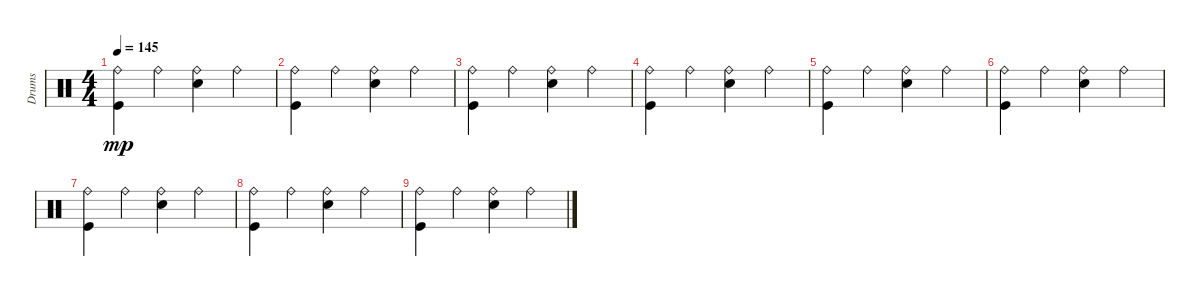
\track ("Drums" "Drums") {instrument percussion}
\staff {score}
\articulation defaults
\ts (4 4)
\tempo 145
\clef neutral
\ks c
("Kick (hit)" "Ride (bell)").4{dy mp} "Ride (bell)".4 ("Snare (hit) 2" "Ride (bell)").4 "Ride (bell)".4 |
("Kick (hit)" "Ride (bell)").4 "Ride (bell)".4 ("Snare (hit) 2" "Ride (bell)").4 "Ride (bell)".4 |
("Kick (hit)" "Ride (bell)").4 "Ride (bell)".4 ("Snare (hit) 2" "Ride (bell)").4 "Ride (bell)".4 |
("Kick (hit)" "Ride (bell)").4 "Ride (bell)".4 ("Snare (hit) 2" "Ride (bell)").4 "Ride (bell)".4 |
("Kick (hit)" "Ride (bell)").4 "Ride (bell)".4 ("Snare (hit) 2" "Ride (bell)").4 "Ride (bell)".4 |
("Kick (hit)" "Ride (bell)").4 "Ride (bell)".4 ("Snare (hit) 2" "Ride (bell)").4 "Ride (bell)".4 |
("Kick (hit)" "Ride (bell)").4 "Ride (bell)".4 ("Snare (hit) 2" "Ride (bell)").4 "Ride (bell)".4 |
("Kick (hit)" "Ride (bell)").4 "Ride (bell)".4 ("Snare (hit) 2" "Ride (bell)").4 "Ride (bell)".4 |
("Kick (hit)" "Ride (bell)").4 "Ride (bell)".4 ("Snare (hit) 2" "Ride (bell)").4 "Ride (bell)".4
